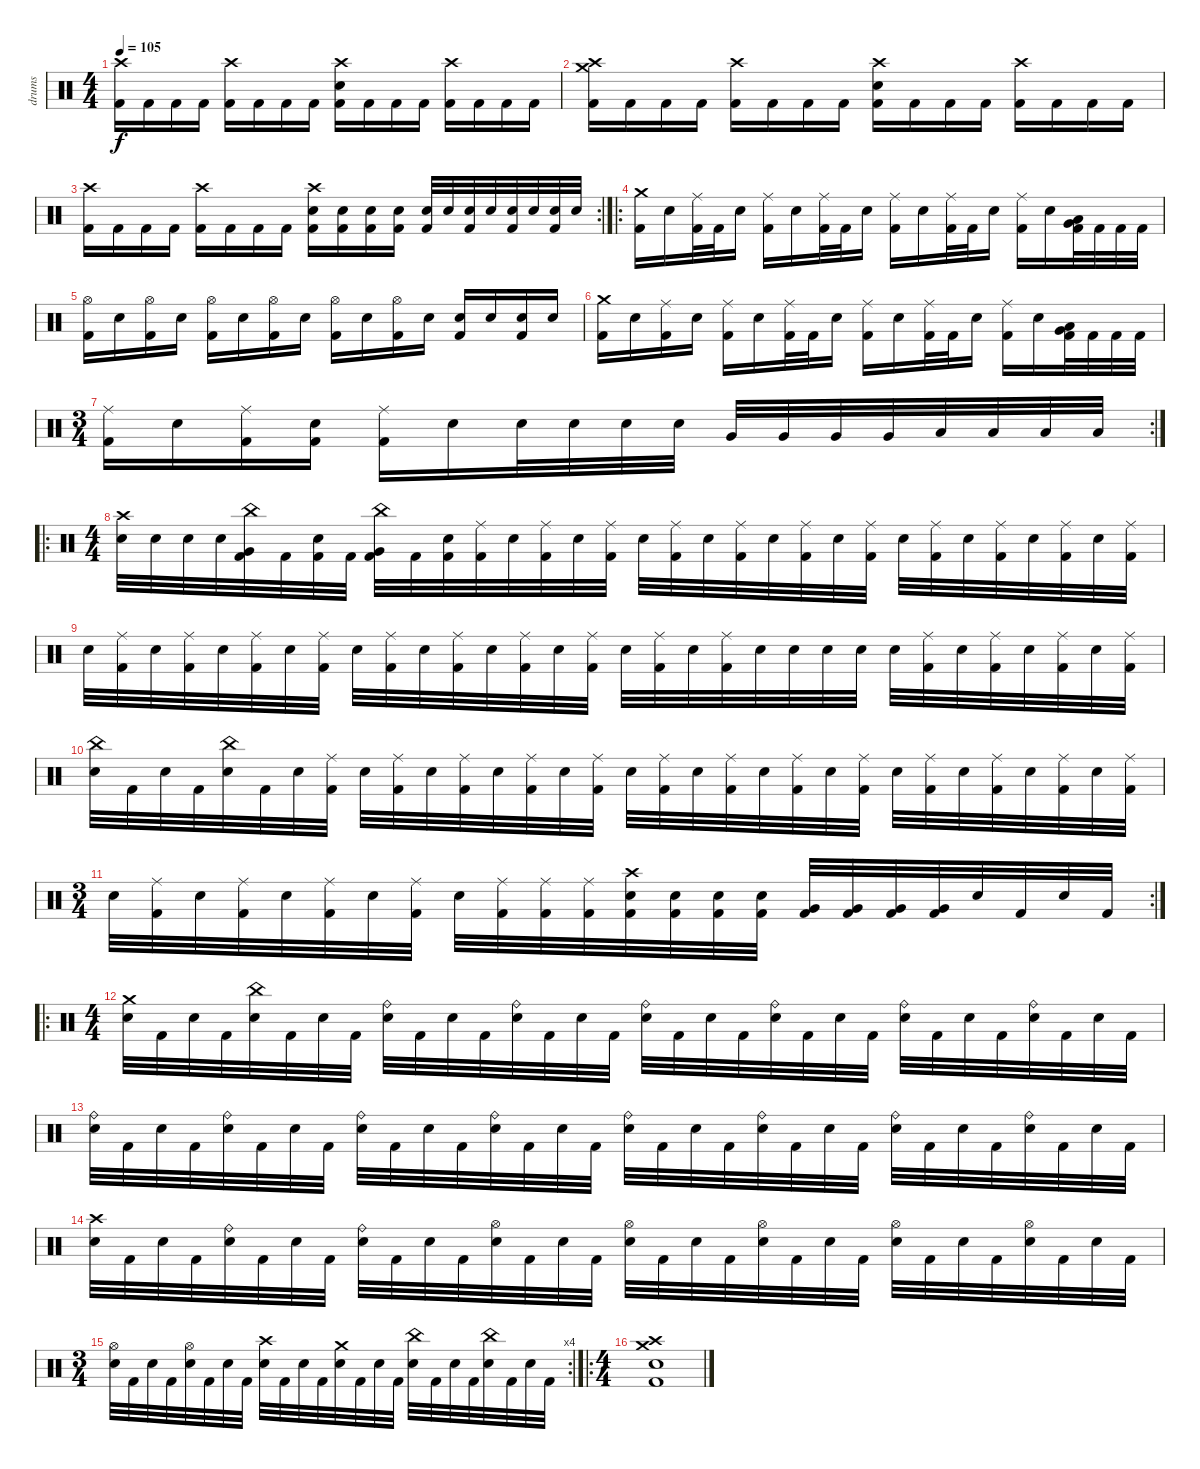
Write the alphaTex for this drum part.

\track ("drums" "drums") {instrument percussion}
\staff {score}
\articulation defaults
\ts (4 4)
\tempo 105
\clef neutral
\ks c
("Crash high (hit)" "Kick (hit) 2").16{dy f} "Kick (hit) 2".16 "Kick (hit) 2".16 "Kick (hit) 2".16 ("Crash high (hit)" "Kick (hit) 2").16 "Kick (hit) 2".16 "Kick (hit) 2".16 "Kick (hit) 2".16 ("Crash high (hit)" "Snare (hit) 2" "Kick (hit) 2").16 "Kick (hit) 2".16 "Kick (hit) 2".16 "Kick (hit) 2".16 ("Crash high (hit)" "Kick (hit) 2").16 "Kick (hit) 2".16 "Kick (hit) 2".16 "Kick (hit) 2".16 |
("Crash medium (hit)" "Crash high (hit)" "Kick (hit) 2").16 "Kick (hit) 2".16 "Kick (hit) 2".16 "Kick (hit) 2".16 ("Crash high (hit)" "Kick (hit) 2").16 "Kick (hit) 2".16 "Kick (hit) 2".16 "Kick (hit) 2".16 ("Crash high (hit)" "Snare (hit) 2" "Kick (hit) 2").16 "Kick (hit) 2".16 "Kick (hit) 2".16 "Kick (hit) 2".16 ("Crash high (hit)" "Kick (hit) 2").16 "Kick (hit) 2".16 "Kick (hit) 2".16 "Kick (hit) 2".16 |
\rc 2
("Crash high (hit)" "Kick (hit) 2").16 "Kick (hit) 2".16 "Kick (hit) 2".16 "Kick (hit) 2".16 ("Crash high (hit)" "Kick (hit) 2").16 "Kick (hit) 2".16 "Kick (hit) 2".16 "Kick (hit) 2".16 ("Crash high (hit)" "Snare (hit) 2" "Kick (hit) 2").16 ("Snare (hit) 2" "Kick (hit) 2").16 ("Snare (hit) 2" "Kick (hit) 2").16 ("Snare (hit) 2" "Kick (hit) 2").16 ("Snare (hit) 2" "Kick (hit) 2").32 "Snare (hit) 2".32 ("Snare (hit) 2" "Kick (hit) 2").32 "Snare (hit) 2".32 ("Snare (hit) 2" "Kick (hit) 2").32 "Snare (hit) 2".32 ("Snare (hit) 2" "Kick (hit) 2").32 "Snare (hit) 2".32 |
\ro
("Crash medium (hit)" "Kick (hit) 2").16 "Snare (hit) 2".16 ("Ride (middle)" "Kick (hit) 2").32 "Kick (hit) 2".32 "Snare (hit) 2".16 ("Ride (middle)" "Kick (hit) 2").16 "Snare (hit) 2".16 ("Ride (middle)" "Kick (hit) 2").32 "Kick (hit) 2".32 "Snare (hit) 2".16 ("Ride (middle)" "Kick (hit) 2").16 "Snare (hit) 2".16 ("Ride (middle)" "Kick (hit) 2").32 "Kick (hit) 2".32 "Snare (hit) 2".16 ("Ride (middle)" "Kick (hit) 2").16 "Snare (hit) 2".16 ("Low Floor Tom (hit)" "Very Low Tom (hit)" "Kick (hit) 2").32 "Kick (hit) 2".32 "Kick (hit) 2".32 "Kick (hit) 2".32 |
("Hi-Hat (open)" "Kick (hit) 2").16 "Snare (hit) 2".16 ("Hi-Hat (open)" "Kick (hit) 2").16 "Snare (hit) 2".16 ("Hi-Hat (open)" "Kick (hit) 2").16 "Snare (hit) 2".16 ("Hi-Hat (open)" "Kick (hit) 2").16 "Snare (hit) 2".16 ("Hi-Hat (open)" "Kick (hit) 2").16 "Snare (hit) 2".16 ("Hi-Hat (open)" "Kick (hit) 2").16 "Snare (hit) 2".16 ("Snare (hit) 2" "Kick (hit) 2").16 "Snare (hit) 2".16 ("Snare (hit) 2" "Kick (hit) 2").16 "Snare (hit) 2".16 |
("Crash medium (hit)" "Kick (hit) 2").16 "Snare (hit) 2".16 ("Ride (middle)" "Kick (hit) 2").16 "Snare (hit) 2".16 ("Ride (middle)" "Kick (hit) 2").16 "Snare (hit) 2".16 ("Ride (middle)" "Kick (hit) 2").32 "Kick (hit) 2".32 "Snare (hit) 2".16 ("Ride (middle)" "Kick (hit) 2").16 "Snare (hit) 2".16 ("Ride (middle)" "Kick (hit) 2").32 "Kick (hit) 2".32 "Snare (hit) 2".16 ("Ride (middle)" "Kick (hit) 2").16 "Snare (hit) 2".16 ("Low Floor Tom (hit)" "Very Low Tom (hit)" "Kick (hit) 2").32 "Kick (hit) 2".32 "Kick (hit) 2".32 "Kick (hit) 2".32 |
\rc 2
\ts (3 4)
("Ride (middle)" "Kick (hit) 2").16 "Snare (hit) 2".16 ("Ride (middle)" "Kick (hit) 2").16 ("Snare (hit) 2" "Kick (hit) 2").16 ("Ride (middle)" "Kick (hit) 2").16 "Snare (hit) 2".16 "Snare (hit) 2".32 "Snare (hit) 2".32 "Snare (hit) 2".32 "Snare (hit) 2".32 "Very Low Tom (hit)".32 "Very Low Tom (hit)".32 "Very Low Tom (hit)".32 "Very Low Tom (hit)".32 "Low Floor Tom (hit)".32 "Low Floor Tom (hit)".32 "Low Floor Tom (hit)".32 "Low Floor Tom (hit)".32 |
\ro
\ts (4 4)
("Crash high (hit)" "Snare (hit) 2").32 "Snare (hit) 2".32 "Snare (hit) 2".32 "Snare (hit) 2".32 ("China (hit)" "Very Low Tom (hit)" "Kick (hit) 2").32 "Kick (hit) 2".32 ("Snare (hit) 2" "Kick (hit) 2").32 "Kick (hit) 2".32 ("China (hit)" "Very Low Tom (hit)" "Kick (hit) 2").32 "Kick (hit) 2".32 ("Snare (hit) 2" "Kick (hit) 2").32 ("Ride (middle)" "Kick (hit) 2").32 "Snare (hit) 2".32 ("Ride (middle)" "Kick (hit) 2").32 "Snare (hit) 2".32 ("Ride (middle)" "Kick (hit) 2").32 "Snare (hit) 2".32 ("Ride (middle)" "Kick (hit) 2").32 "Snare (hit) 2".32 ("Ride (middle)" "Kick (hit) 2").32 "Snare (hit) 2".32 ("Ride (middle)" "Kick (hit) 2").32 "Snare (hit) 2".32 ("Ride (middle)" "Kick (hit) 2").32 "Snare (hit) 2".32 ("Ride (middle)" "Kick (hit) 2").32 "Snare (hit) 2".32 ("Ride (middle)" "Kick (hit) 2").32 "Snare (hit) 2".32 ("Ride (middle)" "Kick (hit) 2").32 "Snare (hit) 2".32 ("Ride (middle)" "Kick (hit) 2").32 |
"Snare (hit) 2".32 ("Ride (middle)" "Kick (hit) 2").32 "Snare (hit) 2".32 ("Ride (middle)" "Kick (hit) 2").32 "Snare (hit) 2".32 ("Ride (middle)" "Kick (hit) 2").32 "Snare (hit) 2".32 ("Ride (middle)" "Kick (hit) 2").32 "Snare (hit) 2".32 ("Ride (middle)" "Kick (hit) 2").32 "Snare (hit) 2".32 ("Ride (middle)" "Kick (hit) 2").32 "Snare (hit) 2".32 ("Ride (middle)" "Kick (hit) 2").32 "Snare (hit) 2".32 ("Ride (middle)" "Kick (hit) 2").32 "Snare (hit) 2".32 ("Ride (middle)" "Kick (hit) 2").32 "Snare (hit) 2".32 ("Ride (middle)" "Kick (hit) 2").32 "Snare (hit) 2".32 "Snare (hit) 2".32 "Snare (hit) 2".32 "Snare (hit) 2".32 "Snare (hit) 2".32 ("Ride (middle)" "Kick (hit) 2").32 "Snare (hit) 2".32 ("Ride (middle)" "Kick (hit) 2").32 "Snare (hit) 2".32 ("Ride (middle)" "Kick (hit) 2").32 "Snare (hit) 2".32 ("Ride (middle)" "Kick (hit) 2").32 |
("China (hit)" "Snare (hit) 2").32 "Kick (hit) 2".32 "Snare (hit) 2".32 "Kick (hit) 2".32 ("China (hit)" "Snare (hit) 2").32 "Kick (hit) 2".32 "Snare (hit) 2".32 ("Ride (middle)" "Kick (hit) 2").32 "Snare (hit) 2".32 ("Ride (middle)" "Kick (hit) 2").32 "Snare (hit) 2".32 ("Ride (middle)" "Kick (hit) 2").32 "Snare (hit) 2".32 ("Ride (middle)" "Kick (hit) 2").32 "Snare (hit) 2".32 ("Ride (middle)" "Kick (hit) 2").32 "Snare (hit) 2".32 ("Ride (middle)" "Kick (hit) 2").32 "Snare (hit) 2".32 ("Ride (middle)" "Kick (hit) 2").32 "Snare (hit) 2".32 ("Ride (middle)" "Kick (hit) 2").32 "Snare (hit) 2".32 ("Ride (middle)" "Kick (hit) 2").32 "Snare (hit) 2".32 ("Ride (middle)" "Kick (hit) 2").32 "Snare (hit) 2".32 ("Ride (middle)" "Kick (hit) 2").32 "Snare (hit) 2".32 ("Ride (middle)" "Kick (hit) 2").32 "Snare (hit) 2".32 ("Ride (middle)" "Kick (hit) 2").32 |
\rc 2
\ts (3 4)
"Snare (hit) 2".32 ("Ride (middle)" "Kick (hit) 2").32 "Snare (hit) 2".32 ("Ride (middle)" "Kick (hit) 2").32 "Snare (hit) 2".32 ("Ride (middle)" "Kick (hit) 2").32 "Snare (hit) 2".32 ("Ride (middle)" "Kick (hit) 2").32 "Snare (hit) 2".32 ("Ride (middle)" "Kick (hit) 2").32 ("Ride (middle)" "Kick (hit) 2").32 ("Ride (middle)" "Kick (hit) 2").32 ("Crash high (hit)" "Snare (hit) 2" "Kick (hit) 2").32 ("Snare (hit) 2" "Kick (hit) 2").32 ("Snare (hit) 2" "Kick (hit) 2").32 ("Snare (hit) 2" "Kick (hit) 2").32 ("Very Low Tom (hit)" "Kick (hit) 2").32 ("Very Low Tom (hit)" "Kick (hit) 2").32 ("Very Low Tom (hit)" "Kick (hit) 2").32 ("Very Low Tom (hit)" "Kick (hit) 2").32 "Snare (hit) 2".32 "Kick (hit) 2".32 "Snare (hit) 2".32 "Kick (hit) 2".32 |
\ro
\ts (4 4)
("Crash medium (hit)" "Snare (hit) 2").32 "Kick (hit) 2".32 "Snare (hit) 2".32 "Kick (hit) 2".32 ("China (hit)" "Snare (hit) 2").32 "Kick (hit) 2".32 "Snare (hit) 2".32 "Kick (hit) 2".32 ("Ride (bell)" "Snare (hit) 2").32 "Kick (hit) 2".32 "Snare (hit) 2".32 "Kick (hit) 2".32 ("Ride (bell)" "Snare (hit) 2").32 "Kick (hit) 2".32 "Snare (hit) 2".32 "Kick (hit) 2".32 ("Ride (bell)" "Snare (hit) 2").32 "Kick (hit) 2".32 "Snare (hit) 2".32 "Kick (hit) 2".32 ("Ride (bell)" "Snare (hit) 2").32 "Kick (hit) 2".32 "Snare (hit) 2".32 "Kick (hit) 2".32 ("Ride (bell)" "Snare (hit) 2").32 "Kick (hit) 2".32 "Snare (hit) 2".32 "Kick (hit) 2".32 ("Ride (bell)" "Snare (hit) 2").32 "Kick (hit) 2".32 "Snare (hit) 2".32 "Kick (hit) 2".32 |
("Ride (bell)" "Snare (hit) 2").32 "Kick (hit) 2".32 "Snare (hit) 2".32 "Kick (hit) 2".32 ("Ride (bell)" "Snare (hit) 2").32 "Kick (hit) 2".32 "Snare (hit) 2".32 "Kick (hit) 2".32 ("Ride (bell)" "Snare (hit) 2").32 "Kick (hit) 2".32 "Snare (hit) 2".32 "Kick (hit) 2".32 ("Ride (bell)" "Snare (hit) 2").32 "Kick (hit) 2".32 "Snare (hit) 2".32 "Kick (hit) 2".32 ("Ride (bell)" "Snare (hit) 2").32 "Kick (hit) 2".32 "Snare (hit) 2".32 "Kick (hit) 2".32 ("Ride (bell)" "Snare (hit) 2").32 "Kick (hit) 2".32 "Snare (hit) 2".32 "Kick (hit) 2".32 ("Ride (bell)" "Snare (hit) 2").32 "Kick (hit) 2".32 "Snare (hit) 2".32 "Kick (hit) 2".32 ("Ride (bell)" "Snare (hit) 2").32 "Kick (hit) 2".32 "Snare (hit) 2".32 "Kick (hit) 2".32 |
("Crash high (hit)" "Snare (hit) 2").32 "Kick (hit) 2".32 "Snare (hit) 2".32 "Kick (hit) 2".32 ("Ride (bell)" "Snare (hit) 2").32 "Kick (hit) 2".32 "Snare (hit) 2".32 "Kick (hit) 2".32 ("Ride (bell)" "Snare (hit) 2").32 "Kick (hit) 2".32 "Snare (hit) 2".32 "Kick (hit) 2".32 ("Hi-Hat (open)" "Snare (hit) 2").32 "Kick (hit) 2".32 "Snare (hit) 2".32 "Kick (hit) 2".32 ("Hi-Hat (open)" "Snare (hit) 2").32 "Kick (hit) 2".32 "Snare (hit) 2".32 "Kick (hit) 2".32 ("Hi-Hat (open)" "Snare (hit) 2").32 "Kick (hit) 2".32 "Snare (hit) 2".32 "Kick (hit) 2".32 ("Hi-Hat (open)" "Snare (hit) 2").32 "Kick (hit) 2".32 "Snare (hit) 2".32 "Kick (hit) 2".32 ("Hi-Hat (open)" "Snare (hit) 2").32 "Kick (hit) 2".32 "Snare (hit) 2".32 "Kick (hit) 2".32 |
\rc 4
\ts (3 4)
("Hi-Hat (open)" "Snare (hit) 2").32 "Kick (hit) 2".32 "Snare (hit) 2".32 "Kick (hit) 2".32 ("Hi-Hat (open)" "Snare (hit) 2").32 "Kick (hit) 2".32 "Snare (hit) 2".32 "Kick (hit) 2".32 ("Crash high (hit)" "Snare (hit) 2").32 "Kick (hit) 2".32 "Snare (hit) 2".32 "Kick (hit) 2".32 ("Crash medium (hit)" "Snare (hit) 2").32 "Kick (hit) 2".32 "Snare (hit) 2".32 "Kick (hit) 2".32 ("China (hit)" "Snare (hit) 2").32 "Kick (hit) 2".32 "Snare (hit) 2".32 "Kick (hit) 2".32 ("China (hit)" "Snare (hit) 2").32 "Kick (hit) 2".32 "Snare (hit) 2".32 "Kick (hit) 2".32 |
\ro
\ts (4 4)
("Crash medium (hit)" "Crash high (hit)" "Snare (hit) 2" "Kick (hit) 2").1
